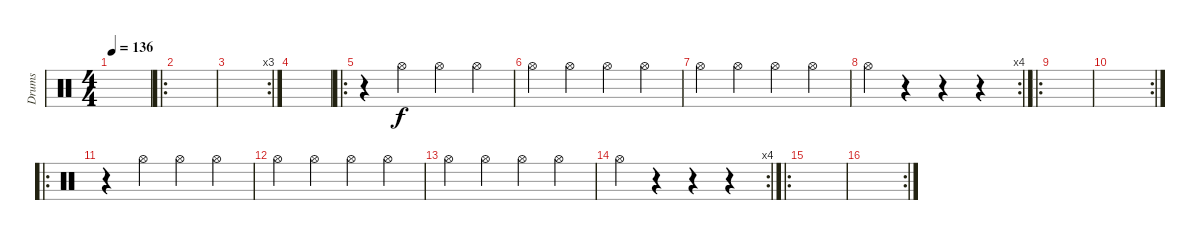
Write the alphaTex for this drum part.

\track ("Drums" "Drums") {instrument percussion}
\staff {score}
\articulation defaults
\ts (4 4)
\tempo 136
\clef neutral
\ks c
|
\ro
|
\rc 3
|
|
\ro
r.4 "Hi-Hat (open)".4 "Hi-Hat (open)".4 "Hi-Hat (open)".4 |
"Hi-Hat (open)".4 "Hi-Hat (open)".4 "Hi-Hat (open)".4 "Hi-Hat (open)".4 |
"Hi-Hat (open)".4 "Hi-Hat (open)".4 "Hi-Hat (open)".4 "Hi-Hat (open)".4 |
\rc 4 "Hi-Hat (open)".4
r.4 r.4 r.4 |
\ro
|
\rc 2
|
\ro
r.4 "Hi-Hat (open)".4 "Hi-Hat (open)".4 "Hi-Hat (open)".4 |
"Hi-Hat (open)".4 "Hi-Hat (open)".4 "Hi-Hat (open)".4 "Hi-Hat (open)".4 |
"Hi-Hat (open)".4 "Hi-Hat (open)".4 "Hi-Hat (open)".4 "Hi-Hat (open)".4 |
\rc 4 "Hi-Hat (open)".4
r.4 r.4 r.4 |
\ro
|
\rc 2
